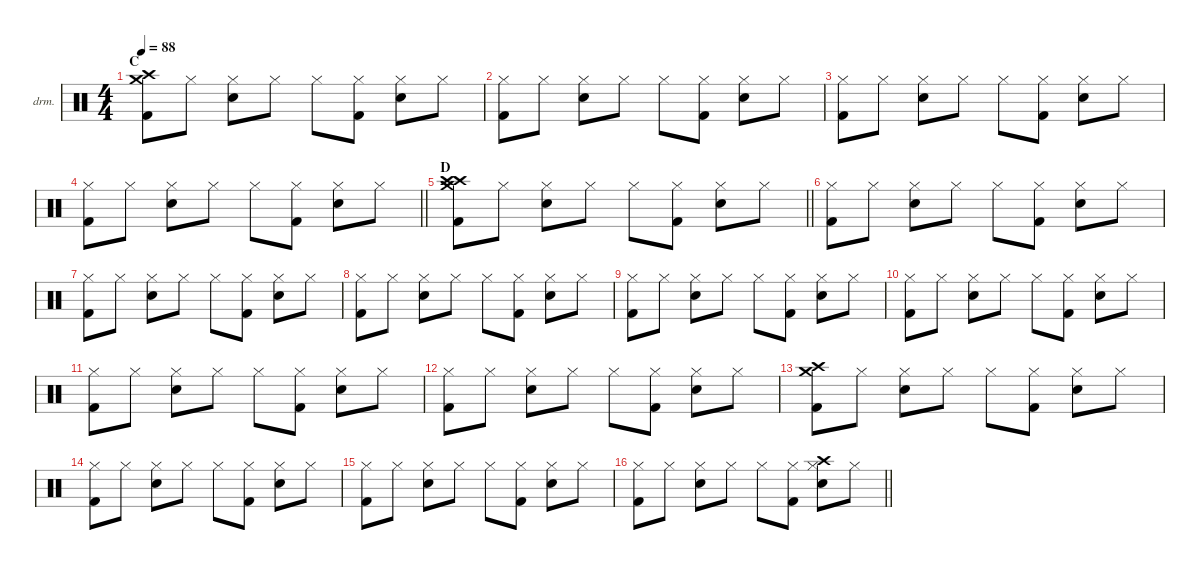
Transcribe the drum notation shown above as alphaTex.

\defaultSystemsLayout 4
\hideDynamics
\bracketExtendMode nobrackets
\firstSystemTrackNameOrientation horizontal
\otherSystemsTrackNameOrientation horizontal
\track ("Percussie" "drm.") {instrument percussion}
\staff {score}
\articulation defaults
\ts (4 4)
\section ("" "C")
\tempo 88
\clef neutral
\ks c
("Crash high (hit)" "Crash medium (hit)" "Kick (hit) 2").8{dy f} "Hi-Hat (closed)".8 ("Hi-Hat (closed)" "Snare (hit) 2").8 "Hi-Hat (closed)".8 "Hi-Hat (closed)".8 ("Hi-Hat (closed)" "Kick (hit) 2").8 ("Hi-Hat (closed)" "Snare (hit) 2").8 "Hi-Hat (closed)".8 |
("Hi-Hat (closed)" "Kick (hit) 2").8 "Hi-Hat (closed)".8 ("Hi-Hat (closed)" "Snare (hit) 2").8 "Hi-Hat (closed)".8 "Hi-Hat (closed)".8 ("Hi-Hat (closed)" "Kick (hit) 2").8 ("Hi-Hat (closed)" "Snare (hit) 2").8 "Hi-Hat (closed)".8 |
("Hi-Hat (closed)" "Kick (hit) 2").8 "Hi-Hat (closed)".8 ("Hi-Hat (closed)" "Snare (hit) 2").8 "Hi-Hat (closed)".8 "Hi-Hat (closed)".8 ("Hi-Hat (closed)" "Kick (hit) 2").8 ("Hi-Hat (closed)" "Snare (hit) 2").8 "Hi-Hat (closed)".8 |
\barLineRight lightlight
("Hi-Hat (closed)" "Kick (hit) 2").8 "Hi-Hat (closed)".8 ("Hi-Hat (closed)" "Snare (hit) 2").8 "Hi-Hat (closed)".8 "Hi-Hat (closed)".8 ("Hi-Hat (closed)" "Kick (hit) 2").8 ("Hi-Hat (closed)" "Snare (hit) 2").8 "Hi-Hat (closed)".8 |
\section ("" "D")
\barLineRight lightlight
("Crash high (hit)" "Crash medium (hit)" "Crash high (hit)" "Kick (hit) 2").8 "Hi-Hat (closed)".8 ("Hi-Hat (closed)" "Snare (hit) 2").8 "Hi-Hat (closed)".8 "Hi-Hat (closed)".8 ("Hi-Hat (closed)" "Kick (hit) 2").8 ("Hi-Hat (closed)" "Snare (hit) 2").8 "Hi-Hat (closed)".8 |
\section ("" "")
("Hi-Hat (closed)" "Kick (hit) 2").8 "Hi-Hat (closed)".8 ("Hi-Hat (closed)" "Snare (hit) 2").8 "Hi-Hat (closed)".8 "Hi-Hat (closed)".8 ("Hi-Hat (closed)" "Kick (hit) 2").8 ("Hi-Hat (closed)" "Snare (hit) 2").8 "Hi-Hat (closed)".8 |
("Hi-Hat (closed)" "Kick (hit) 2").8 "Hi-Hat (closed)".8 ("Hi-Hat (closed)" "Snare (hit) 2").8 "Hi-Hat (closed)".8 "Hi-Hat (closed)".8 ("Hi-Hat (closed)" "Kick (hit) 2").8 ("Hi-Hat (closed)" "Snare (hit) 2").8 "Hi-Hat (closed)".8 |
("Hi-Hat (closed)" "Kick (hit) 2").8 "Hi-Hat (closed)".8 ("Hi-Hat (closed)" "Snare (hit) 2").8 "Hi-Hat (closed)".8 "Hi-Hat (closed)".8 ("Hi-Hat (closed)" "Kick (hit) 2").8 ("Hi-Hat (closed)" "Snare (hit) 2").8 "Hi-Hat (closed)".8 |
("Hi-Hat (closed)" "Kick (hit) 2").8 "Hi-Hat (closed)".8 ("Hi-Hat (closed)" "Snare (hit) 2").8 "Hi-Hat (closed)".8 "Hi-Hat (closed)".8 ("Hi-Hat (closed)" "Kick (hit) 2").8 ("Hi-Hat (closed)" "Snare (hit) 2").8 "Hi-Hat (closed)".8 |
("Hi-Hat (closed)" "Kick (hit) 2").8 "Hi-Hat (closed)".8 ("Hi-Hat (closed)" "Snare (hit) 2").8 "Hi-Hat (closed)".8 "Hi-Hat (closed)".8 ("Hi-Hat (closed)" "Kick (hit) 2").8 ("Hi-Hat (closed)" "Snare (hit) 2").8 "Hi-Hat (closed)".8 |
("Hi-Hat (closed)" "Kick (hit) 2").8 "Hi-Hat (closed)".8 ("Hi-Hat (closed)" "Snare (hit) 2").8 "Hi-Hat (closed)".8 "Hi-Hat (closed)".8 ("Hi-Hat (closed)" "Kick (hit) 2").8 ("Hi-Hat (closed)" "Snare (hit) 2").8 "Hi-Hat (closed)".8 |
("Hi-Hat (closed)" "Kick (hit) 2").8 "Hi-Hat (closed)".8 ("Hi-Hat (closed)" "Snare (hit) 2").8 "Hi-Hat (closed)".8 "Hi-Hat (closed)".8 ("Hi-Hat (closed)" "Kick (hit) 2").8 ("Hi-Hat (closed)" "Snare (hit) 2").8 "Hi-Hat (closed)".8 |
("Crash high (hit)" "Crash medium (hit)" "Kick (hit) 2").8 "Hi-Hat (closed)".8 ("Hi-Hat (closed)" "Snare (hit) 2").8 "Hi-Hat (closed)".8 "Hi-Hat (closed)".8 ("Hi-Hat (closed)" "Kick (hit) 2").8 ("Hi-Hat (closed)" "Snare (hit) 2").8 "Hi-Hat (closed)".8 |
("Hi-Hat (closed)" "Kick (hit) 2").8 "Hi-Hat (closed)".8 ("Hi-Hat (closed)" "Snare (hit) 2").8 "Hi-Hat (closed)".8 "Hi-Hat (closed)".8 ("Hi-Hat (closed)" "Kick (hit) 2").8 ("Hi-Hat (closed)" "Snare (hit) 2").8 "Hi-Hat (closed)".8 |
("Hi-Hat (closed)" "Kick (hit) 2").8 "Hi-Hat (closed)".8 ("Hi-Hat (closed)" "Snare (hit) 2").8 "Hi-Hat (closed)".8 "Hi-Hat (closed)".8 ("Hi-Hat (closed)" "Kick (hit) 2").8 ("Hi-Hat (closed)" "Snare (hit) 2").8 "Hi-Hat (closed)".8 |
\barLineRight lightlight
("Hi-Hat (closed)" "Kick (hit) 2").8 "Hi-Hat (closed)".8 ("Hi-Hat (closed)" "Snare (hit) 2").8 "Hi-Hat (closed)".8 "Hi-Hat (closed)".8 ("Hi-Hat (closed)" "Kick (hit) 2").8 ("Hi-Hat (closed)" "Crash high (hit)" "Snare (hit) 2").8 "Hi-Hat (closed)".8
